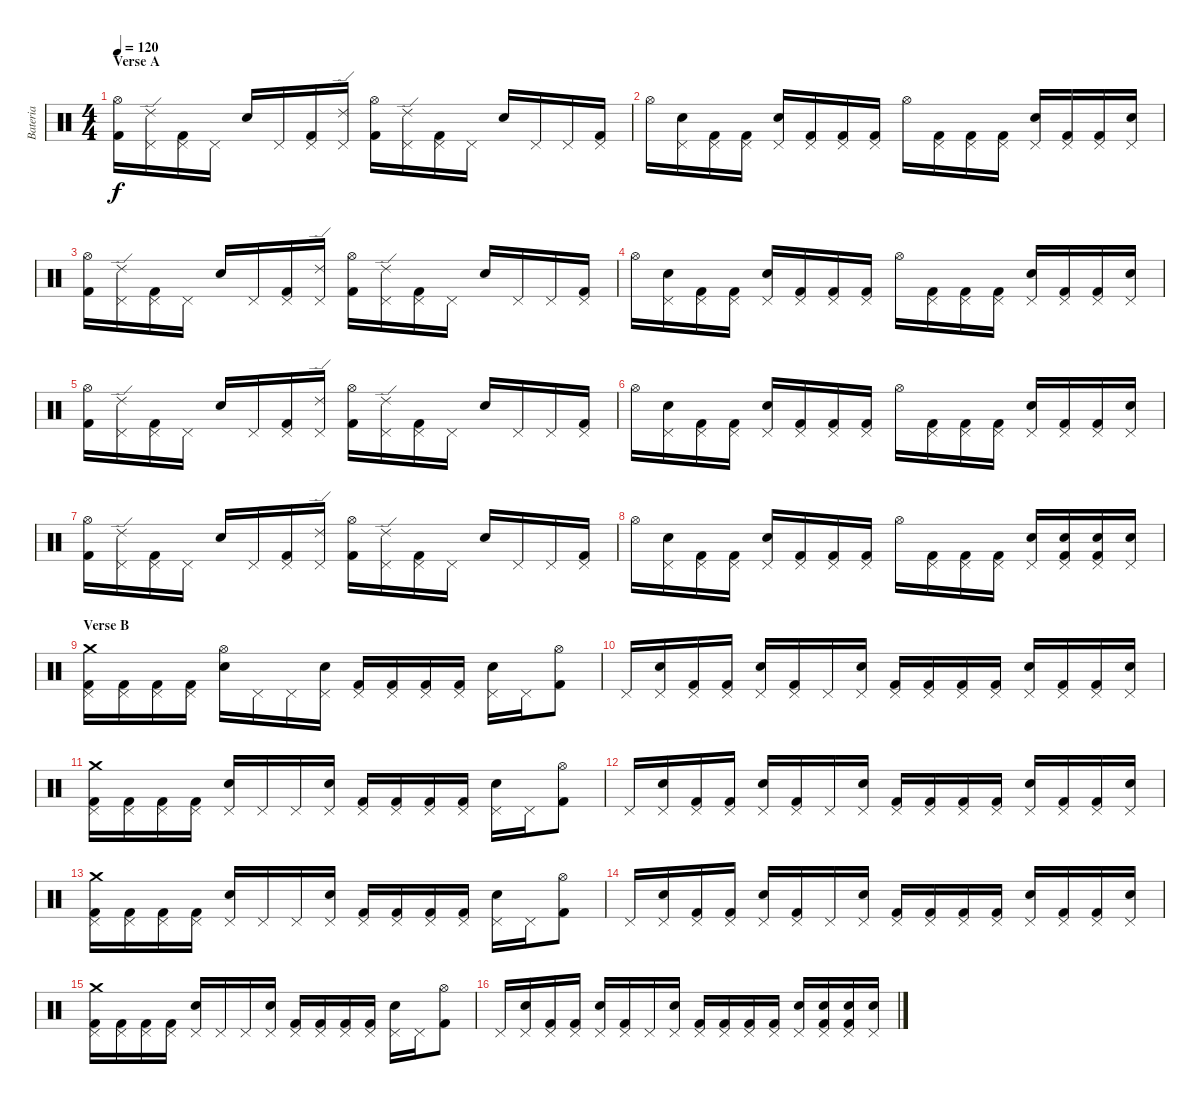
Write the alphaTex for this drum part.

\track ("Bateria" "Bateria") {instrument percussion}
\staff {score}
\articulation defaults
\ts (4 4)
\section ("" "Verse A")
\tempo 120
\clef neutral
\ks c
("Kick (hit) 2" "Hi-Hat (open)").16{dy f} ("Ride (edge) 2" "Pedal Hi-Hat (hit)").16 ("Kick (hit) 2" "Pedal Hi-Hat (hit)").16 "Pedal Hi-Hat (hit)".16 "Snare (hit) 2".16 "Pedal Hi-Hat (hit)".16 ("Kick (hit) 2" "Pedal Hi-Hat (hit)").16 ("Ride (edge) 2" "Pedal Hi-Hat (hit)").16 ("Kick (hit) 2" "Hi-Hat (open)").16 ("Ride (edge) 2" "Pedal Hi-Hat (hit)").16 ("Kick (hit) 2" "Pedal Hi-Hat (hit)").16 "Pedal Hi-Hat (hit)".16 "Snare (hit) 2".16 "Pedal Hi-Hat (hit)".16 "Pedal Hi-Hat (hit)".16 ("Kick (hit) 2" "Pedal Hi-Hat (hit)").16 |
"Hi-Hat (open)".16 ("Snare (hit) 2" "Pedal Hi-Hat (hit)").16 ("Kick (hit) 2" "Pedal Hi-Hat (hit)").16 ("Kick (hit) 2" "Pedal Hi-Hat (hit)").16 ("Snare (hit) 2" "Pedal Hi-Hat (hit)").16 ("Kick (hit) 2" "Pedal Hi-Hat (hit)").16 ("Kick (hit) 2" "Pedal Hi-Hat (hit)").16 ("Kick (hit) 2" "Pedal Hi-Hat (hit)").16 "Hi-Hat (open)".16 ("Kick (hit) 2" "Pedal Hi-Hat (hit)").16 ("Kick (hit) 2" "Pedal Hi-Hat (hit)").16 ("Kick (hit) 2" "Pedal Hi-Hat (hit)").16 ("Snare (hit) 2" "Pedal Hi-Hat (hit)").16 ("Kick (hit) 2" "Pedal Hi-Hat (hit)").16 ("Kick (hit) 2" "Pedal Hi-Hat (hit)").16 ("Snare (hit) 2" "Pedal Hi-Hat (hit)").16 |
("Kick (hit) 2" "Hi-Hat (open)").16 ("Ride (edge) 2" "Pedal Hi-Hat (hit)").16 ("Kick (hit) 2" "Pedal Hi-Hat (hit)").16 "Pedal Hi-Hat (hit)".16 "Snare (hit) 2".16 "Pedal Hi-Hat (hit)".16 ("Kick (hit) 2" "Pedal Hi-Hat (hit)").16 ("Ride (edge) 2" "Pedal Hi-Hat (hit)").16 ("Kick (hit) 2" "Hi-Hat (open)").16 ("Ride (edge) 2" "Pedal Hi-Hat (hit)").16 ("Kick (hit) 2" "Pedal Hi-Hat (hit)").16 "Pedal Hi-Hat (hit)".16 "Snare (hit) 2".16 "Pedal Hi-Hat (hit)".16 "Pedal Hi-Hat (hit)".16 ("Kick (hit) 2" "Pedal Hi-Hat (hit)").16 |
"Hi-Hat (open)".16 ("Snare (hit) 2" "Pedal Hi-Hat (hit)").16 ("Kick (hit) 2" "Pedal Hi-Hat (hit)").16 ("Kick (hit) 2" "Pedal Hi-Hat (hit)").16 ("Snare (hit) 2" "Pedal Hi-Hat (hit)").16 ("Kick (hit) 2" "Pedal Hi-Hat (hit)").16 ("Kick (hit) 2" "Pedal Hi-Hat (hit)").16 ("Kick (hit) 2" "Pedal Hi-Hat (hit)").16 "Hi-Hat (open)".16 ("Kick (hit) 2" "Pedal Hi-Hat (hit)").16 ("Kick (hit) 2" "Pedal Hi-Hat (hit)").16 ("Kick (hit) 2" "Pedal Hi-Hat (hit)").16 ("Snare (hit) 2" "Pedal Hi-Hat (hit)").16 ("Kick (hit) 2" "Pedal Hi-Hat (hit)").16 ("Kick (hit) 2" "Pedal Hi-Hat (hit)").16 ("Snare (hit) 2" "Pedal Hi-Hat (hit)").16 |
("Kick (hit) 2" "Hi-Hat (open)").16 ("Ride (edge) 2" "Pedal Hi-Hat (hit)").16 ("Kick (hit) 2" "Pedal Hi-Hat (hit)").16 "Pedal Hi-Hat (hit)".16 "Snare (hit) 2".16 "Pedal Hi-Hat (hit)".16 ("Kick (hit) 2" "Pedal Hi-Hat (hit)").16 ("Ride (edge) 2" "Pedal Hi-Hat (hit)").16 ("Kick (hit) 2" "Hi-Hat (open)").16 ("Ride (edge) 2" "Pedal Hi-Hat (hit)").16 ("Kick (hit) 2" "Pedal Hi-Hat (hit)").16 "Pedal Hi-Hat (hit)".16 "Snare (hit) 2".16 "Pedal Hi-Hat (hit)".16 "Pedal Hi-Hat (hit)".16 ("Kick (hit) 2" "Pedal Hi-Hat (hit)").16 |
"Hi-Hat (open)".16 ("Snare (hit) 2" "Pedal Hi-Hat (hit)").16 ("Kick (hit) 2" "Pedal Hi-Hat (hit)").16 ("Kick (hit) 2" "Pedal Hi-Hat (hit)").16 ("Snare (hit) 2" "Pedal Hi-Hat (hit)").16 ("Kick (hit) 2" "Pedal Hi-Hat (hit)").16 ("Kick (hit) 2" "Pedal Hi-Hat (hit)").16 ("Kick (hit) 2" "Pedal Hi-Hat (hit)").16 "Hi-Hat (open)".16 ("Kick (hit) 2" "Pedal Hi-Hat (hit)").16 ("Kick (hit) 2" "Pedal Hi-Hat (hit)").16 ("Kick (hit) 2" "Pedal Hi-Hat (hit)").16 ("Snare (hit) 2" "Pedal Hi-Hat (hit)").16 ("Kick (hit) 2" "Pedal Hi-Hat (hit)").16 ("Kick (hit) 2" "Pedal Hi-Hat (hit)").16 ("Snare (hit) 2" "Pedal Hi-Hat (hit)").16 |
("Kick (hit) 2" "Hi-Hat (open)").16 ("Ride (edge) 2" "Pedal Hi-Hat (hit)").16 ("Kick (hit) 2" "Pedal Hi-Hat (hit)").16 "Pedal Hi-Hat (hit)".16 "Snare (hit) 2".16 "Pedal Hi-Hat (hit)".16 ("Kick (hit) 2" "Pedal Hi-Hat (hit)").16 ("Ride (edge) 2" "Pedal Hi-Hat (hit)").16 ("Kick (hit) 2" "Hi-Hat (open)").16 ("Ride (edge) 2" "Pedal Hi-Hat (hit)").16 ("Kick (hit) 2" "Pedal Hi-Hat (hit)").16 "Pedal Hi-Hat (hit)".16 "Snare (hit) 2".16 "Pedal Hi-Hat (hit)".16 "Pedal Hi-Hat (hit)".16 ("Kick (hit) 2" "Pedal Hi-Hat (hit)").16 |
"Hi-Hat (open)".16 ("Snare (hit) 2" "Pedal Hi-Hat (hit)").16 ("Kick (hit) 2" "Pedal Hi-Hat (hit)").16 ("Kick (hit) 2" "Pedal Hi-Hat (hit)").16 ("Snare (hit) 2" "Pedal Hi-Hat (hit)").16 ("Kick (hit) 2" "Pedal Hi-Hat (hit)").16 ("Kick (hit) 2" "Pedal Hi-Hat (hit)").16 ("Kick (hit) 2" "Pedal Hi-Hat (hit)").16 "Hi-Hat (open)".16 ("Kick (hit) 2" "Pedal Hi-Hat (hit)").16 ("Kick (hit) 2" "Pedal Hi-Hat (hit)").16 ("Kick (hit) 2" "Pedal Hi-Hat (hit)").16 ("Snare (hit) 2" "Pedal Hi-Hat (hit)").16 ("Kick (hit) 2" "Snare (hit) 2" "Pedal Hi-Hat (hit)").16 ("Kick (hit) 2" "Snare (hit) 2" "Pedal Hi-Hat (hit)").16 ("Snare (hit) 2" "Pedal Hi-Hat (hit)").16 |
\section ("" "Verse B")
("Kick (hit) 2" "Crash medium (hit)" "Pedal Hi-Hat (hit)").16 ("Kick (hit) 2" "Pedal Hi-Hat (hit)").16 ("Kick (hit) 2" "Pedal Hi-Hat (hit)").16 ("Kick (hit) 2" "Pedal Hi-Hat (hit)").16 ("Snare (hit) 2" "Hi-Hat (open)").16 "Pedal Hi-Hat (hit)".16 "Pedal Hi-Hat (hit)".16 ("Snare (hit) 2" "Pedal Hi-Hat (hit)").16 ("Kick (hit) 2" "Pedal Hi-Hat (hit)").16 ("Kick (hit) 2" "Pedal Hi-Hat (hit)").16 ("Kick (hit) 2" "Pedal Hi-Hat (hit)").16 ("Kick (hit) 2" "Pedal Hi-Hat (hit)").16 ("Snare (hit) 2" "Pedal Hi-Hat (hit)").16 "Pedal Hi-Hat (hit)".16 ("Kick (hit) 2" "Hi-Hat (open)").8 |
"Pedal Hi-Hat (hit)".16 ("Snare (hit) 2" "Pedal Hi-Hat (hit)").16 ("Kick (hit) 2" "Pedal Hi-Hat (hit)").16 ("Kick (hit) 2" "Pedal Hi-Hat (hit)").16 ("Snare (hit) 2" "Pedal Hi-Hat (hit)").16 ("Kick (hit) 2" "Pedal Hi-Hat (hit)").16 "Pedal Hi-Hat (hit)".16 ("Snare (hit) 2" "Pedal Hi-Hat (hit)").16 ("Kick (hit) 2" "Pedal Hi-Hat (hit)").16 ("Kick (hit) 2" "Pedal Hi-Hat (hit)").16 ("Kick (hit) 2" "Pedal Hi-Hat (hit)").16 ("Kick (hit) 2" "Pedal Hi-Hat (hit)").16 ("Snare (hit) 2" "Pedal Hi-Hat (hit)").16 ("Kick (hit) 2" "Pedal Hi-Hat (hit)").16 ("Kick (hit) 2" "Pedal Hi-Hat (hit)").16 ("Snare (hit) 2" "Pedal Hi-Hat (hit)").16 |
("Kick (hit) 2" "Crash medium (hit)" "Pedal Hi-Hat (hit)").16 ("Kick (hit) 2" "Pedal Hi-Hat (hit)").16 ("Kick (hit) 2" "Pedal Hi-Hat (hit)").16 ("Kick (hit) 2" "Pedal Hi-Hat (hit)").16 ("Snare (hit) 2" "Pedal Hi-Hat (hit)").16 "Pedal Hi-Hat (hit)".16 "Pedal Hi-Hat (hit)".16 ("Snare (hit) 2" "Pedal Hi-Hat (hit)").16 ("Kick (hit) 2" "Pedal Hi-Hat (hit)").16 ("Kick (hit) 2" "Pedal Hi-Hat (hit)").16 ("Kick (hit) 2" "Pedal Hi-Hat (hit)").16 ("Kick (hit) 2" "Pedal Hi-Hat (hit)").16 ("Snare (hit) 2" "Pedal Hi-Hat (hit)").16 "Pedal Hi-Hat (hit)".16 ("Kick (hit) 2" "Hi-Hat (open)").8 |
"Pedal Hi-Hat (hit)".16 ("Snare (hit) 2" "Pedal Hi-Hat (hit)").16 ("Kick (hit) 2" "Pedal Hi-Hat (hit)").16 ("Kick (hit) 2" "Pedal Hi-Hat (hit)").16 ("Snare (hit) 2" "Pedal Hi-Hat (hit)").16 ("Kick (hit) 2" "Pedal Hi-Hat (hit)").16 "Pedal Hi-Hat (hit)".16 ("Snare (hit) 2" "Pedal Hi-Hat (hit)").16 ("Kick (hit) 2" "Pedal Hi-Hat (hit)").16 ("Kick (hit) 2" "Pedal Hi-Hat (hit)").16 ("Kick (hit) 2" "Pedal Hi-Hat (hit)").16 ("Kick (hit) 2" "Pedal Hi-Hat (hit)").16 ("Snare (hit) 2" "Pedal Hi-Hat (hit)").16 ("Kick (hit) 2" "Pedal Hi-Hat (hit)").16 ("Kick (hit) 2" "Pedal Hi-Hat (hit)").16 ("Snare (hit) 2" "Pedal Hi-Hat (hit)").16 |
("Kick (hit) 2" "Crash medium (hit)" "Pedal Hi-Hat (hit)").16 ("Kick (hit) 2" "Pedal Hi-Hat (hit)").16 ("Kick (hit) 2" "Pedal Hi-Hat (hit)").16 ("Kick (hit) 2" "Pedal Hi-Hat (hit)").16 ("Snare (hit) 2" "Pedal Hi-Hat (hit)").16 "Pedal Hi-Hat (hit)".16 "Pedal Hi-Hat (hit)".16 ("Snare (hit) 2" "Pedal Hi-Hat (hit)").16 ("Kick (hit) 2" "Pedal Hi-Hat (hit)").16 ("Kick (hit) 2" "Pedal Hi-Hat (hit)").16 ("Kick (hit) 2" "Pedal Hi-Hat (hit)").16 ("Kick (hit) 2" "Pedal Hi-Hat (hit)").16 ("Snare (hit) 2" "Pedal Hi-Hat (hit)").16 "Pedal Hi-Hat (hit)".16 ("Kick (hit) 2" "Hi-Hat (open)").8 |
"Pedal Hi-Hat (hit)".16 ("Snare (hit) 2" "Pedal Hi-Hat (hit)").16 ("Kick (hit) 2" "Pedal Hi-Hat (hit)").16 ("Kick (hit) 2" "Pedal Hi-Hat (hit)").16 ("Snare (hit) 2" "Pedal Hi-Hat (hit)").16 ("Kick (hit) 2" "Pedal Hi-Hat (hit)").16 "Pedal Hi-Hat (hit)".16 ("Snare (hit) 2" "Pedal Hi-Hat (hit)").16 ("Kick (hit) 2" "Pedal Hi-Hat (hit)").16 ("Kick (hit) 2" "Pedal Hi-Hat (hit)").16 ("Kick (hit) 2" "Pedal Hi-Hat (hit)").16 ("Kick (hit) 2" "Pedal Hi-Hat (hit)").16 ("Snare (hit) 2" "Pedal Hi-Hat (hit)").16 ("Kick (hit) 2" "Pedal Hi-Hat (hit)").16 ("Kick (hit) 2" "Pedal Hi-Hat (hit)").16 ("Snare (hit) 2" "Pedal Hi-Hat (hit)").16 |
("Kick (hit) 2" "Crash medium (hit)" "Pedal Hi-Hat (hit)").16 ("Kick (hit) 2" "Pedal Hi-Hat (hit)").16 ("Kick (hit) 2" "Pedal Hi-Hat (hit)").16 ("Kick (hit) 2" "Pedal Hi-Hat (hit)").16 ("Snare (hit) 2" "Pedal Hi-Hat (hit)").16 "Pedal Hi-Hat (hit)".16 "Pedal Hi-Hat (hit)".16 ("Snare (hit) 2" "Pedal Hi-Hat (hit)").16 ("Kick (hit) 2" "Pedal Hi-Hat (hit)").16 ("Kick (hit) 2" "Pedal Hi-Hat (hit)").16 ("Kick (hit) 2" "Pedal Hi-Hat (hit)").16 ("Kick (hit) 2" "Pedal Hi-Hat (hit)").16 ("Snare (hit) 2" "Pedal Hi-Hat (hit)").16 "Pedal Hi-Hat (hit)".16 ("Kick (hit) 2" "Hi-Hat (open)").8 |
"Pedal Hi-Hat (hit)".16 ("Snare (hit) 2" "Pedal Hi-Hat (hit)").16 ("Kick (hit) 2" "Pedal Hi-Hat (hit)").16 ("Kick (hit) 2" "Pedal Hi-Hat (hit)").16 ("Snare (hit) 2" "Pedal Hi-Hat (hit)").16 ("Kick (hit) 2" "Pedal Hi-Hat (hit)").16 "Pedal Hi-Hat (hit)".16 ("Snare (hit) 2" "Pedal Hi-Hat (hit)").16 ("Kick (hit) 2" "Pedal Hi-Hat (hit)").16 ("Kick (hit) 2" "Pedal Hi-Hat (hit)").16 ("Kick (hit) 2" "Pedal Hi-Hat (hit)").16 ("Kick (hit) 2" "Pedal Hi-Hat (hit)").16 ("Snare (hit) 2" "Pedal Hi-Hat (hit)").16 ("Kick (hit) 2" "Snare (hit) 2" "Pedal Hi-Hat (hit)").16 ("Kick (hit) 2" "Snare (hit) 2" "Pedal Hi-Hat (hit)").16 ("Snare (hit) 2" "Pedal Hi-Hat (hit)").16
